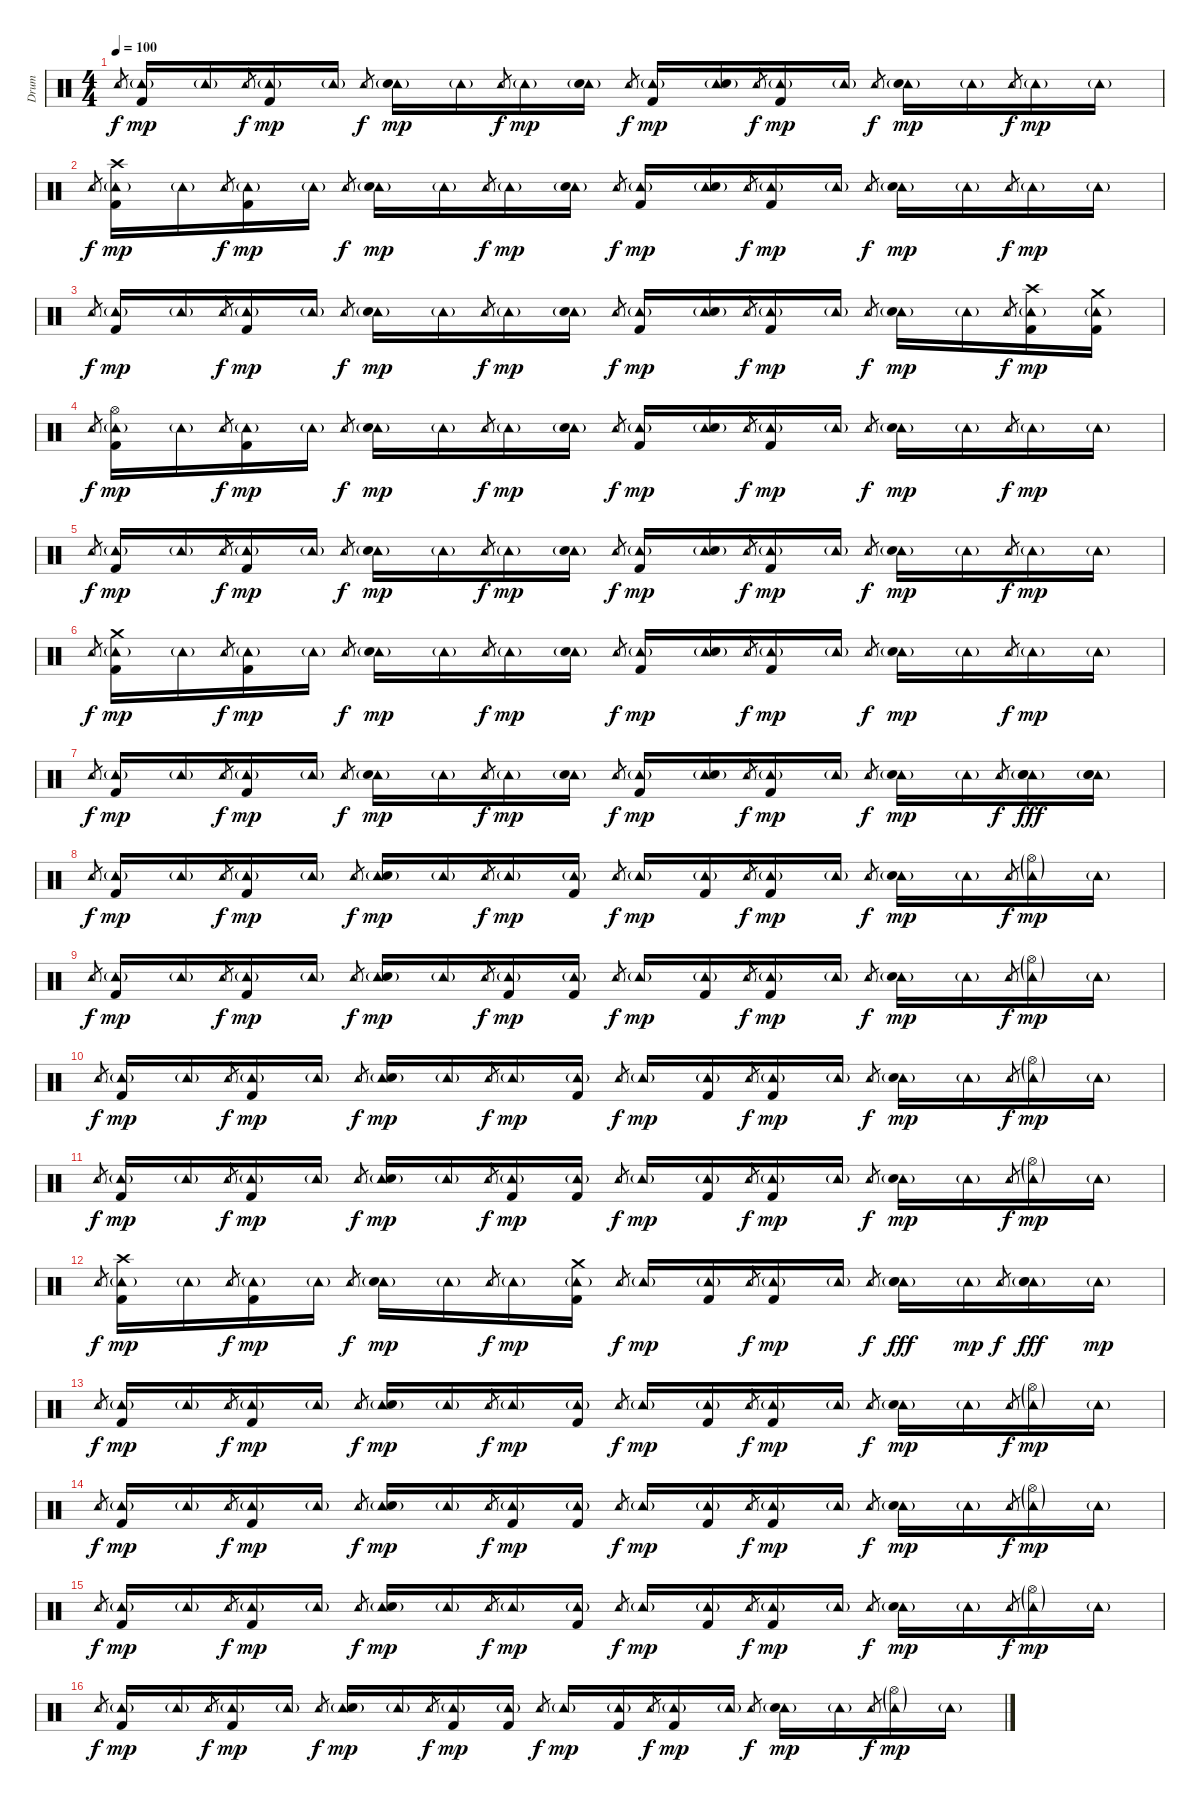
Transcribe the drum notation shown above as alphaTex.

\track ("Drum" "Drum") {instrument percussion}
\staff {score}
\articulation defaults
\ts (4 4)
\tempo 100
\clef neutral
\ks c "Tambourine (hit)".8{gr dy f}
("Tambourine (hit)"{g} "Kick (hit) 2").16{dy mp} "Tambourine (hit)"{g}.16 "Tambourine (hit)".8{gr dy f} ("Tambourine (hit)"{g} "Kick (hit) 2").16{dy mp} "Tambourine (hit)"{g}.16 "Tambourine (hit)".8{gr dy f} ("Tambourine (hit)"{g} "Electric Snare (hit)").16{dy mp} "Tambourine (hit)"{g}.16 "Tambourine (hit)".8{gr dy f} "Tambourine (hit)"{g}.16{dy mp} ("Tambourine (hit)"{g} "Electric Snare (hit)").16 "Tambourine (hit)".8{gr dy f} ("Tambourine (hit)"{g} "Kick (hit) 2").16{dy mp} ("Tambourine (hit)"{g} "Electric Snare (hit)").16 "Tambourine (hit)".8{gr dy f} ("Tambourine (hit)"{g} "Kick (hit) 2").16{dy mp} "Tambourine (hit)"{g}.16 "Tambourine (hit)".8{gr dy f} ("Tambourine (hit)"{g} "Electric Snare (hit)").16{dy mp} "Tambourine (hit)"{g}.16 "Tambourine (hit)".8{gr dy f} "Tambourine (hit)"{g}.16{dy mp} "Tambourine (hit)"{g}.16 |
"Tambourine (hit)".8{gr dy f} ("Crash high (hit)" "Tambourine (hit)"{g} "Kick (hit) 2").16{dy mp} "Tambourine (hit)"{g}.16 "Tambourine (hit)".8{gr dy f} ("Tambourine (hit)"{g} "Kick (hit) 2").16{dy mp} "Tambourine (hit)"{g}.16 "Tambourine (hit)".8{gr dy f} ("Tambourine (hit)"{g} "Electric Snare (hit)").16{dy mp} "Tambourine (hit)"{g}.16 "Tambourine (hit)".8{gr dy f} "Tambourine (hit)"{g}.16{dy mp} ("Tambourine (hit)"{g} "Electric Snare (hit)").16 "Tambourine (hit)".8{gr dy f} ("Tambourine (hit)"{g} "Kick (hit) 2").16{dy mp} ("Tambourine (hit)"{g} "Electric Snare (hit)").16 "Tambourine (hit)".8{gr dy f} ("Tambourine (hit)"{g} "Kick (hit) 2").16{dy mp} "Tambourine (hit)"{g}.16 "Tambourine (hit)".8{gr dy f} ("Tambourine (hit)"{g} "Electric Snare (hit)").16{dy mp} "Tambourine (hit)"{g}.16 "Tambourine (hit)".8{gr dy f} "Tambourine (hit)"{g}.16{dy mp} "Tambourine (hit)"{g}.16 |
"Tambourine (hit)".8{gr dy f} ("Tambourine (hit)"{g} "Kick (hit) 2").16{dy mp} "Tambourine (hit)"{g}.16 "Tambourine (hit)".8{gr dy f} ("Tambourine (hit)"{g} "Kick (hit) 2").16{dy mp} "Tambourine (hit)"{g}.16 "Tambourine (hit)".8{gr dy f} ("Tambourine (hit)"{g} "Electric Snare (hit)").16{dy mp} "Tambourine (hit)"{g}.16 "Tambourine (hit)".8{gr dy f} "Tambourine (hit)"{g}.16{dy mp} ("Tambourine (hit)"{g} "Electric Snare (hit)").16 "Tambourine (hit)".8{gr dy f} ("Tambourine (hit)"{g} "Kick (hit) 2").16{dy mp} ("Tambourine (hit)"{g} "Electric Snare (hit)").16 "Tambourine (hit)".8{gr dy f} ("Tambourine (hit)"{g} "Kick (hit) 2").16{dy mp} "Tambourine (hit)"{g}.16 "Tambourine (hit)".8{gr dy f} ("Tambourine (hit)"{g} "Electric Snare (hit)").16{dy mp} "Tambourine (hit)"{g}.16 "Tambourine (hit)".8{gr dy f} ("Crash high (hit)" "Tambourine (hit)"{g} "Kick (hit) 2").16{dy mp} ("Crash medium (hit)" "Tambourine (hit)"{g} "Kick (hit) 2").16 |
"Tambourine (hit)".8{gr dy f} ("Hi-Hat (open)" "Tambourine (hit)"{g} "Kick (hit) 2").16{dy mp} "Tambourine (hit)"{g}.16 "Tambourine (hit)".8{gr dy f} ("Tambourine (hit)"{g} "Kick (hit) 2").16{dy mp} "Tambourine (hit)"{g}.16 "Tambourine (hit)".8{gr dy f} ("Tambourine (hit)"{g} "Electric Snare (hit)").16{dy mp} "Tambourine (hit)"{g}.16 "Tambourine (hit)".8{gr dy f} "Tambourine (hit)"{g}.16{dy mp} ("Tambourine (hit)"{g} "Electric Snare (hit)").16 "Tambourine (hit)".8{gr dy f} ("Tambourine (hit)"{g} "Kick (hit) 2").16{dy mp} ("Tambourine (hit)"{g} "Electric Snare (hit)").16 "Tambourine (hit)".8{gr dy f} ("Tambourine (hit)"{g} "Kick (hit) 2").16{dy mp} "Tambourine (hit)"{g}.16 "Tambourine (hit)".8{gr dy f} ("Tambourine (hit)"{g} "Electric Snare (hit)").16{dy mp} "Tambourine (hit)"{g}.16 "Tambourine (hit)".8{gr dy f} "Tambourine (hit)"{g}.16{dy mp} "Tambourine (hit)"{g}.16 |
"Tambourine (hit)".8{gr dy f} ("Tambourine (hit)"{g} "Kick (hit) 2").16{dy mp} "Tambourine (hit)"{g}.16 "Tambourine (hit)".8{gr dy f} ("Tambourine (hit)"{g} "Kick (hit) 2").16{dy mp} "Tambourine (hit)"{g}.16 "Tambourine (hit)".8{gr dy f} ("Tambourine (hit)"{g} "Electric Snare (hit)").16{dy mp} "Tambourine (hit)"{g}.16 "Tambourine (hit)".8{gr dy f} "Tambourine (hit)"{g}.16{dy mp} ("Tambourine (hit)"{g} "Electric Snare (hit)").16 "Tambourine (hit)".8{gr dy f} ("Tambourine (hit)"{g} "Kick (hit) 2").16{dy mp} ("Tambourine (hit)"{g} "Electric Snare (hit)").16 "Tambourine (hit)".8{gr dy f} ("Tambourine (hit)"{g} "Kick (hit) 2").16{dy mp} "Tambourine (hit)"{g}.16 "Tambourine (hit)".8{gr dy f} ("Tambourine (hit)"{g} "Electric Snare (hit)").16{dy mp} "Tambourine (hit)"{g}.16 "Tambourine (hit)".8{gr dy f} "Tambourine (hit)"{g}.16{dy mp} "Tambourine (hit)"{g}.16 |
"Tambourine (hit)".8{gr dy f} ("Crash medium (hit)" "Tambourine (hit)"{g} "Kick (hit) 2").16{dy mp} "Tambourine (hit)"{g}.16 "Tambourine (hit)".8{gr dy f} ("Tambourine (hit)"{g} "Kick (hit) 2").16{dy mp} "Tambourine (hit)"{g}.16 "Tambourine (hit)".8{gr dy f} ("Tambourine (hit)"{g} "Electric Snare (hit)").16{dy mp} "Tambourine (hit)"{g}.16 "Tambourine (hit)".8{gr dy f} "Tambourine (hit)"{g}.16{dy mp} ("Tambourine (hit)"{g} "Electric Snare (hit)").16 "Tambourine (hit)".8{gr dy f} ("Tambourine (hit)"{g} "Kick (hit) 2").16{dy mp} ("Tambourine (hit)"{g} "Electric Snare (hit)").16 "Tambourine (hit)".8{gr dy f} ("Tambourine (hit)"{g} "Kick (hit) 2").16{dy mp} "Tambourine (hit)"{g}.16 "Tambourine (hit)".8{gr dy f} ("Tambourine (hit)"{g} "Electric Snare (hit)").16{dy mp} "Tambourine (hit)"{g}.16 "Tambourine (hit)".8{gr dy f} "Tambourine (hit)"{g}.16{dy mp} "Tambourine (hit)"{g}.16 |
"Tambourine (hit)".8{gr dy f} ("Tambourine (hit)"{g} "Kick (hit) 2").16{dy mp} "Tambourine (hit)"{g}.16 "Tambourine (hit)".8{gr dy f} ("Tambourine (hit)"{g} "Kick (hit) 2").16{dy mp} "Tambourine (hit)"{g}.16 "Tambourine (hit)".8{gr dy f} ("Tambourine (hit)"{g} "Electric Snare (hit)").16{dy mp} "Tambourine (hit)"{g}.16 "Tambourine (hit)".8{gr dy f} "Tambourine (hit)"{g}.16{dy mp} ("Tambourine (hit)"{g} "Electric Snare (hit)").16 "Tambourine (hit)".8{gr dy f} ("Tambourine (hit)"{g} "Kick (hit) 2").16{dy mp} ("Tambourine (hit)"{g} "Electric Snare (hit)").16 "Tambourine (hit)".8{gr dy f} ("Tambourine (hit)"{g} "Kick (hit) 2").16{dy mp} "Tambourine (hit)"{g}.16 "Tambourine (hit)".8{gr dy f} ("Tambourine (hit)"{g} "Electric Snare (hit)").16{dy mp} "Tambourine (hit)"{g}.16 "Tambourine (hit)".8{gr dy f} ("Tambourine (hit)"{g} "Electric Snare (hit)" "Electric Snare (hit)").16{dy fff} ("Tambourine (hit)"{g} "Electric Snare (hit)" "Electric Snare (hit)").16 |
"Tambourine (hit)".8{gr dy f} ("Tambourine (hit)"{g} "Kick (hit) 2").16{dy mp} "Tambourine (hit)"{g}.16 "Tambourine (hit)".8{gr dy f} ("Tambourine (hit)"{g} "Kick (hit) 2").16{dy mp} "Tambourine (hit)"{g}.16 "Tambourine (hit)".8{gr dy f} ("Tambourine (hit)"{g} "Electric Snare (hit)").16{dy mp} "Tambourine (hit)"{g}.16 "Tambourine (hit)".8{gr dy f} "Tambourine (hit)"{g}.16{dy mp} ("Tambourine (hit)"{g} "Kick (hit) 2").16 "Tambourine (hit)".8{gr dy f} "Tambourine (hit)"{g}.16{dy mp} ("Tambourine (hit)"{g} "Kick (hit) 2").16 "Tambourine (hit)".8{gr dy f} ("Tambourine (hit)"{g} "Kick (hit) 2").16{dy mp} "Tambourine (hit)"{g}.16 "Tambourine (hit)".8{gr dy f} ("Tambourine (hit)"{g} "Electric Snare (hit)").16{dy mp} "Tambourine (hit)"{g}.16 "Tambourine (hit)".8{gr dy f} ("Hi-Hat (open)"{g} "Tambourine (hit)"{g}).16{dy mp} "Tambourine (hit)"{g}.16 |
"Tambourine (hit)".8{gr dy f} ("Tambourine (hit)"{g} "Kick (hit) 2").16{dy mp} "Tambourine (hit)"{g}.16 "Tambourine (hit)".8{gr dy f} ("Tambourine (hit)"{g} "Kick (hit) 2").16{dy mp} "Tambourine (hit)"{g}.16 "Tambourine (hit)".8{gr dy f} ("Tambourine (hit)"{g} "Electric Snare (hit)").16{dy mp} "Tambourine (hit)"{g}.16 "Tambourine (hit)".8{gr dy f} ("Tambourine (hit)"{g} "Kick (hit) 2").16{dy mp} ("Tambourine (hit)"{g} "Kick (hit) 2").16 "Tambourine (hit)".8{gr dy f} "Tambourine (hit)"{g}.16{dy mp} ("Tambourine (hit)"{g} "Kick (hit) 2").16 "Tambourine (hit)".8{gr dy f} ("Tambourine (hit)"{g} "Kick (hit) 2").16{dy mp} "Tambourine (hit)"{g}.16 "Tambourine (hit)".8{gr dy f} ("Tambourine (hit)"{g} "Electric Snare (hit)").16{dy mp} "Tambourine (hit)"{g}.16 "Tambourine (hit)".8{gr dy f} ("Hi-Hat (open)"{g} "Tambourine (hit)"{g}).16{dy mp} "Tambourine (hit)"{g}.16 |
"Tambourine (hit)".8{gr dy f} ("Tambourine (hit)"{g} "Kick (hit) 2").16{dy mp} "Tambourine (hit)"{g}.16 "Tambourine (hit)".8{gr dy f} ("Tambourine (hit)"{g} "Kick (hit) 2").16{dy mp} "Tambourine (hit)"{g}.16 "Tambourine (hit)".8{gr dy f} ("Tambourine (hit)"{g} "Electric Snare (hit)").16{dy mp} "Tambourine (hit)"{g}.16 "Tambourine (hit)".8{gr dy f} "Tambourine (hit)"{g}.16{dy mp} ("Tambourine (hit)"{g} "Kick (hit) 2").16 "Tambourine (hit)".8{gr dy f} "Tambourine (hit)"{g}.16{dy mp} ("Tambourine (hit)"{g} "Kick (hit) 2").16 "Tambourine (hit)".8{gr dy f} ("Tambourine (hit)"{g} "Kick (hit) 2").16{dy mp} "Tambourine (hit)"{g}.16 "Tambourine (hit)".8{gr dy f} ("Tambourine (hit)"{g} "Electric Snare (hit)").16{dy mp} "Tambourine (hit)"{g}.16 "Tambourine (hit)".8{gr dy f} ("Hi-Hat (open)"{g} "Tambourine (hit)"{g}).16{dy mp} "Tambourine (hit)"{g}.16 |
"Tambourine (hit)".8{gr dy f} ("Tambourine (hit)"{g} "Kick (hit) 2").16{dy mp} "Tambourine (hit)"{g}.16 "Tambourine (hit)".8{gr dy f} ("Tambourine (hit)"{g} "Kick (hit) 2").16{dy mp} "Tambourine (hit)"{g}.16 "Tambourine (hit)".8{gr dy f} ("Tambourine (hit)"{g} "Electric Snare (hit)").16{dy mp} "Tambourine (hit)"{g}.16 "Tambourine (hit)".8{gr dy f} ("Tambourine (hit)"{g} "Kick (hit) 2").16{dy mp} ("Tambourine (hit)"{g} "Kick (hit) 2").16 "Tambourine (hit)".8{gr dy f} "Tambourine (hit)"{g}.16{dy mp} ("Tambourine (hit)"{g} "Kick (hit) 2").16 "Tambourine (hit)".8{gr dy f} ("Tambourine (hit)"{g} "Kick (hit) 2").16{dy mp} "Tambourine (hit)"{g}.16 "Tambourine (hit)".8{gr dy f} ("Tambourine (hit)"{g} "Electric Snare (hit)").16{dy mp} "Tambourine (hit)"{g}.16 "Tambourine (hit)".8{gr dy f} ("Hi-Hat (open)"{g} "Tambourine (hit)"{g}).16{dy mp} "Tambourine (hit)"{g}.16 |
"Tambourine (hit)".8{gr dy f} ("Crash high (hit)" "Tambourine (hit)"{g} "Kick (hit) 2").16{dy mp} "Tambourine (hit)"{g}.16 "Tambourine (hit)".8{gr dy f} ("Tambourine (hit)"{g} "Kick (hit) 2").16{dy mp} "Tambourine (hit)"{g}.16 "Tambourine (hit)".8{gr dy f} ("Tambourine (hit)"{g} "Electric Snare (hit)").16{dy mp} "Tambourine (hit)"{g}.16 "Tambourine (hit)".8{gr dy f} "Tambourine (hit)"{g}.16{dy mp} ("Crash medium (hit)" "Tambourine (hit)"{g} "Kick (hit) 2").16 "Tambourine (hit)".8{gr dy f} "Tambourine (hit)"{g}.16{dy mp} ("Tambourine (hit)"{g} "Kick (hit) 2").16 "Tambourine (hit)".8{gr dy f} ("Tambourine (hit)"{g} "Kick (hit) 2").16{dy mp} "Tambourine (hit)"{g}.16 "Tambourine (hit)".8{gr dy f} ("Tambourine (hit)"{g} "Electric Snare (hit)" "Electric Snare (hit)").16{dy fff} "Tambourine (hit)"{g}.16{dy mp} "Tambourine (hit)".8{gr dy f} ("Tambourine (hit)"{g} "Electric Snare (hit)" "Electric Snare (hit)").16{dy fff} "Tambourine (hit)"{g}.16{dy mp} |
"Tambourine (hit)".8{gr dy f} ("Tambourine (hit)"{g} "Kick (hit) 2").16{dy mp} "Tambourine (hit)"{g}.16 "Tambourine (hit)".8{gr dy f} ("Tambourine (hit)"{g} "Kick (hit) 2").16{dy mp} "Tambourine (hit)"{g}.16 "Tambourine (hit)".8{gr dy f} ("Tambourine (hit)"{g} "Electric Snare (hit)").16{dy mp} "Tambourine (hit)"{g}.16 "Tambourine (hit)".8{gr dy f} "Tambourine (hit)"{g}.16{dy mp} ("Tambourine (hit)"{g} "Kick (hit) 2").16 "Tambourine (hit)".8{gr dy f} "Tambourine (hit)"{g}.16{dy mp} ("Tambourine (hit)"{g} "Kick (hit) 2").16 "Tambourine (hit)".8{gr dy f} ("Tambourine (hit)"{g} "Kick (hit) 2").16{dy mp} "Tambourine (hit)"{g}.16 "Tambourine (hit)".8{gr dy f} ("Tambourine (hit)"{g} "Electric Snare (hit)").16{dy mp} "Tambourine (hit)"{g}.16 "Tambourine (hit)".8{gr dy f} ("Hi-Hat (open)"{g} "Tambourine (hit)"{g}).16{dy mp} "Tambourine (hit)"{g}.16 |
"Tambourine (hit)".8{gr dy f} ("Tambourine (hit)"{g} "Kick (hit) 2").16{dy mp} "Tambourine (hit)"{g}.16 "Tambourine (hit)".8{gr dy f} ("Tambourine (hit)"{g} "Kick (hit) 2").16{dy mp} "Tambourine (hit)"{g}.16 "Tambourine (hit)".8{gr dy f} ("Tambourine (hit)"{g} "Electric Snare (hit)").16{dy mp} "Tambourine (hit)"{g}.16 "Tambourine (hit)".8{gr dy f} ("Tambourine (hit)"{g} "Kick (hit) 2").16{dy mp} ("Tambourine (hit)"{g} "Kick (hit) 2").16 "Tambourine (hit)".8{gr dy f} "Tambourine (hit)"{g}.16{dy mp} ("Tambourine (hit)"{g} "Kick (hit) 2").16 "Tambourine (hit)".8{gr dy f} ("Tambourine (hit)"{g} "Kick (hit) 2").16{dy mp} "Tambourine (hit)"{g}.16 "Tambourine (hit)".8{gr dy f} ("Tambourine (hit)"{g} "Electric Snare (hit)").16{dy mp} "Tambourine (hit)"{g}.16 "Tambourine (hit)".8{gr dy f} ("Hi-Hat (open)"{g} "Tambourine (hit)"{g}).16{dy mp} "Tambourine (hit)"{g}.16 |
"Tambourine (hit)".8{gr dy f} ("Tambourine (hit)"{g} "Kick (hit) 2").16{dy mp} "Tambourine (hit)"{g}.16 "Tambourine (hit)".8{gr dy f} ("Tambourine (hit)"{g} "Kick (hit) 2").16{dy mp} "Tambourine (hit)"{g}.16 "Tambourine (hit)".8{gr dy f} ("Tambourine (hit)"{g} "Electric Snare (hit)").16{dy mp} "Tambourine (hit)"{g}.16 "Tambourine (hit)".8{gr dy f} "Tambourine (hit)"{g}.16{dy mp} ("Tambourine (hit)"{g} "Kick (hit) 2").16 "Tambourine (hit)".8{gr dy f} "Tambourine (hit)"{g}.16{dy mp} ("Tambourine (hit)"{g} "Kick (hit) 2").16 "Tambourine (hit)".8{gr dy f} ("Tambourine (hit)"{g} "Kick (hit) 2").16{dy mp} "Tambourine (hit)"{g}.16 "Tambourine (hit)".8{gr dy f} ("Tambourine (hit)"{g} "Electric Snare (hit)").16{dy mp} "Tambourine (hit)"{g}.16 "Tambourine (hit)".8{gr dy f} ("Hi-Hat (open)"{g} "Tambourine (hit)"{g}).16{dy mp} "Tambourine (hit)"{g}.16 |
"Tambourine (hit)".8{gr dy f} ("Tambourine (hit)"{g} "Kick (hit) 2").16{dy mp} "Tambourine (hit)"{g}.16 "Tambourine (hit)".8{gr dy f} ("Tambourine (hit)"{g} "Kick (hit) 2").16{dy mp} "Tambourine (hit)"{g}.16 "Tambourine (hit)".8{gr dy f} ("Tambourine (hit)"{g} "Electric Snare (hit)").16{dy mp} "Tambourine (hit)"{g}.16 "Tambourine (hit)".8{gr dy f} ("Tambourine (hit)"{g} "Kick (hit) 2").16{dy mp} ("Tambourine (hit)"{g} "Kick (hit) 2").16 "Tambourine (hit)".8{gr dy f} "Tambourine (hit)"{g}.16{dy mp} ("Tambourine (hit)"{g} "Kick (hit) 2").16 "Tambourine (hit)".8{gr dy f} ("Tambourine (hit)"{g} "Kick (hit) 2").16{dy mp} "Tambourine (hit)"{g}.16 "Tambourine (hit)".8{gr dy f} ("Tambourine (hit)"{g} "Electric Snare (hit)").16{dy mp} "Tambourine (hit)"{g}.16 "Tambourine (hit)".8{gr dy f} ("Hi-Hat (open)"{g} "Tambourine (hit)"{g}).16{dy mp} "Tambourine (hit)"{g}.16
